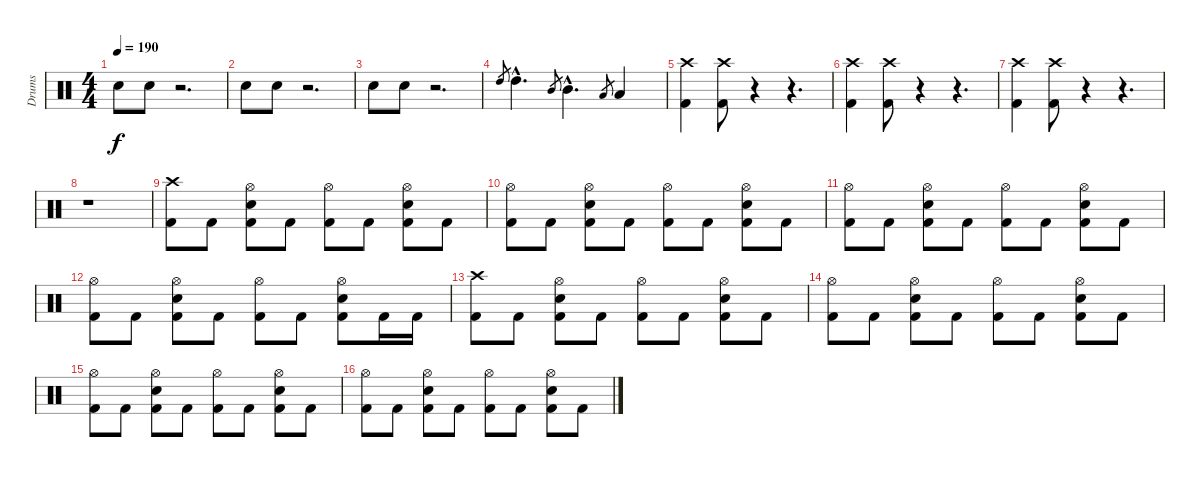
\track ("Drums" "Drums") {instrument percussion}
\staff {score}
\articulation defaults
\ts (4 4)
\tempo 190
\clef neutral
\ks c "Snare (hit) 2".8{dy f} "Snare (hit) 2".8
r.2{d} |
"Snare (hit) 2".8 "Snare (hit) 2".8 r.2{d} |
"Snare (hit) 2".8 "Snare (hit) 2".8 r.2{d} |
"High Tom (hit)".8{gr} "High Tom (hit)"{hac}.4{d} "Mid Tom (hit)".8{gr} "Mid Tom (hit)"{hac}.4{d} "Low Tom (hit)".8{gr} "Low Tom (hit)".4 |
("Crash high (hit)" "Kick (hit) 2").4 ("Crash high (hit)" "Kick (hit) 2").8 r.4 r.4{d} |
("Crash high (hit)" "Kick (hit) 2").4 ("Crash high (hit)" "Kick (hit) 2").8 r.4 r.4{d} |
("Crash high (hit)" "Kick (hit) 2").4 ("Crash high (hit)" "Kick (hit) 2").8 r.4 r.4{d} |
r.1 |
("Crash high (hit)" "Kick (hit) 2").8 "Kick (hit) 2".8 ("Hi-Hat (open)" "Snare (hit) 2" "Kick (hit) 2").8 "Kick (hit) 2".8 ("Hi-Hat (open)" "Kick (hit) 2").8 "Kick (hit) 2".8 ("Hi-Hat (open)" "Snare (hit) 2" "Kick (hit) 2").8 "Kick (hit) 2".8 |
("Hi-Hat (open)" "Kick (hit) 2").8 "Kick (hit) 2".8 ("Hi-Hat (open)" "Snare (hit) 2" "Kick (hit) 2").8 "Kick (hit) 2".8 ("Hi-Hat (open)" "Kick (hit) 2").8 "Kick (hit) 2".8 ("Hi-Hat (open)" "Snare (hit) 2" "Kick (hit) 2").8 "Kick (hit) 2".8 |
("Hi-Hat (open)" "Kick (hit) 2").8 "Kick (hit) 2".8 ("Hi-Hat (open)" "Snare (hit) 2" "Kick (hit) 2").8 "Kick (hit) 2".8 ("Hi-Hat (open)" "Kick (hit) 2").8 "Kick (hit) 2".8 ("Hi-Hat (open)" "Snare (hit) 2" "Kick (hit) 2").8 "Kick (hit) 2".8 |
("Hi-Hat (open)" "Kick (hit) 2").8 "Kick (hit) 2".8 ("Hi-Hat (open)" "Snare (hit) 2" "Kick (hit) 2").8 "Kick (hit) 2".8 ("Hi-Hat (open)" "Kick (hit) 2").8 "Kick (hit) 2".8 ("Hi-Hat (open)" "Snare (hit) 2" "Kick (hit) 2").8 "Kick (hit) 2".16 "Kick (hit) 2".16 |
("Crash high (hit)" "Kick (hit) 2").8 "Kick (hit) 2".8 ("Hi-Hat (open)" "Snare (hit) 2" "Kick (hit) 2").8 "Kick (hit) 2".8 ("Hi-Hat (open)" "Kick (hit) 2").8 "Kick (hit) 2".8 ("Hi-Hat (open)" "Snare (hit) 2" "Kick (hit) 2").8 "Kick (hit) 2".8 |
("Hi-Hat (open)" "Kick (hit) 2").8 "Kick (hit) 2".8 ("Hi-Hat (open)" "Snare (hit) 2" "Kick (hit) 2").8 "Kick (hit) 2".8 ("Hi-Hat (open)" "Kick (hit) 2").8 "Kick (hit) 2".8 ("Hi-Hat (open)" "Snare (hit) 2" "Kick (hit) 2").8 "Kick (hit) 2".8 |
("Hi-Hat (open)" "Kick (hit) 2").8 "Kick (hit) 2".8 ("Hi-Hat (open)" "Snare (hit) 2" "Kick (hit) 2").8 "Kick (hit) 2".8 ("Hi-Hat (open)" "Kick (hit) 2").8 "Kick (hit) 2".8 ("Hi-Hat (open)" "Snare (hit) 2" "Kick (hit) 2").8 "Kick (hit) 2".8 |
("Hi-Hat (open)" "Kick (hit) 2").8 "Kick (hit) 2".8 ("Hi-Hat (open)" "Snare (hit) 2" "Kick (hit) 2").8 "Kick (hit) 2".8 ("Hi-Hat (open)" "Kick (hit) 2").8 "Kick (hit) 2".8 ("Hi-Hat (open)" "Snare (hit) 2" "Kick (hit) 2").8 "Kick (hit) 2".8
